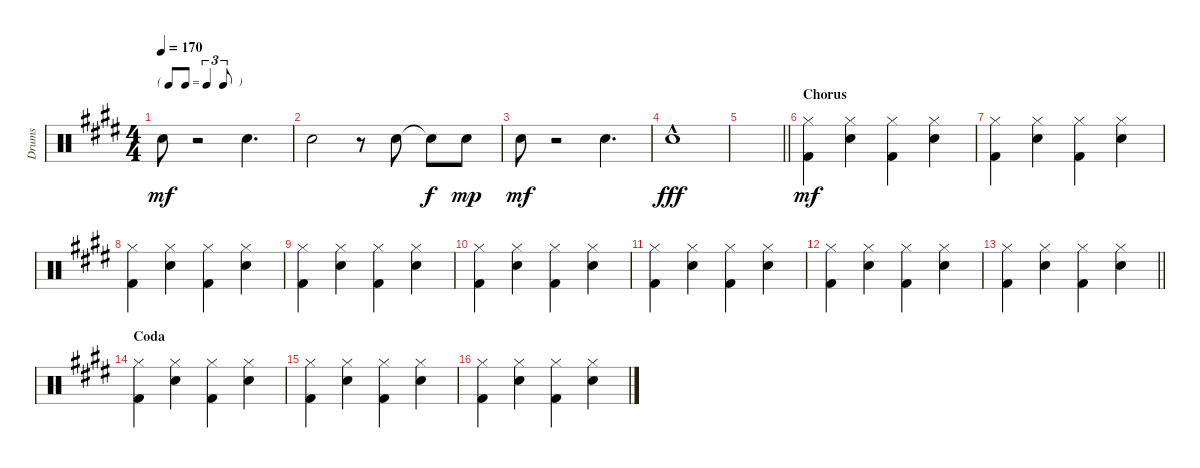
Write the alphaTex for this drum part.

\track ("Drums" "Drums") {instrument percussion}
\staff {score}
\articulation defaults
\ts (4 4)
\tf triplet8th
\tempo 170
\clef neutral
\ks e "Snare (hit) 2".8{dy mf}
r.2 "Snare (hit) 2".4{d} |
"Snare (hit) 2".2 r.8 "Snare (hit) 2".8 "Snare (hit) 2"{t}.8{dy f} "Snare (hit) 2".8{dy mp} |
"Snare (hit) 2".8{dy mf} r.2 "Snare (hit) 2".4{d} |
"Snare (hit) 2"{hac}.1{dy fff} |
\barLineRight lightlight
|
\section ("" "Chorus")
("Kick (hit) 2" "Hi-Hat (closed)").4{dy mf} ("Snare (hit) 2" "Hi-Hat (closed)").4 ("Kick (hit) 2" "Hi-Hat (closed)").4 ("Snare (hit) 2" "Hi-Hat (closed)").4 |
("Kick (hit) 2" "Hi-Hat (closed)").4 ("Snare (hit) 2" "Hi-Hat (closed)").4 ("Kick (hit) 2" "Hi-Hat (closed)").4 ("Snare (hit) 2" "Hi-Hat (closed)").4 |
("Kick (hit) 2" "Hi-Hat (closed)").4 ("Snare (hit) 2" "Hi-Hat (closed)").4 ("Kick (hit) 2" "Hi-Hat (closed)").4 ("Snare (hit) 2" "Hi-Hat (closed)").4 |
("Kick (hit) 2" "Hi-Hat (closed)").4 ("Snare (hit) 2" "Hi-Hat (closed)").4 ("Kick (hit) 2" "Hi-Hat (closed)").4 ("Snare (hit) 2" "Hi-Hat (closed)").4 |
("Kick (hit) 2" "Hi-Hat (closed)").4 ("Snare (hit) 2" "Hi-Hat (closed)").4 ("Kick (hit) 2" "Hi-Hat (closed)").4 ("Snare (hit) 2" "Hi-Hat (closed)").4 |
("Kick (hit) 2" "Hi-Hat (closed)").4 ("Snare (hit) 2" "Hi-Hat (closed)").4 ("Kick (hit) 2" "Hi-Hat (closed)").4 ("Snare (hit) 2" "Hi-Hat (closed)").4 |
("Kick (hit) 2" "Hi-Hat (closed)").4 ("Snare (hit) 2" "Hi-Hat (closed)").4 ("Kick (hit) 2" "Hi-Hat (closed)").4 ("Snare (hit) 2" "Hi-Hat (closed)").4 |
\barLineRight lightlight
("Kick (hit) 2" "Hi-Hat (closed)").4 ("Snare (hit) 2" "Hi-Hat (closed)").4 ("Kick (hit) 2" "Hi-Hat (closed)").4 ("Snare (hit) 2" "Hi-Hat (closed)").4 |
\section ("" "Coda")
("Kick (hit) 2" "Hi-Hat (closed)").4 ("Snare (hit) 2" "Hi-Hat (closed)").4 ("Kick (hit) 2" "Hi-Hat (closed)").4 ("Snare (hit) 2" "Hi-Hat (closed)").4 |
("Kick (hit) 2" "Hi-Hat (closed)").4 ("Snare (hit) 2" "Hi-Hat (closed)").4 ("Kick (hit) 2" "Hi-Hat (closed)").4 ("Snare (hit) 2" "Hi-Hat (closed)").4 |
("Kick (hit) 2" "Hi-Hat (closed)").4 ("Snare (hit) 2" "Hi-Hat (closed)").4 ("Kick (hit) 2" "Hi-Hat (closed)").4 ("Snare (hit) 2" "Hi-Hat (closed)").4
